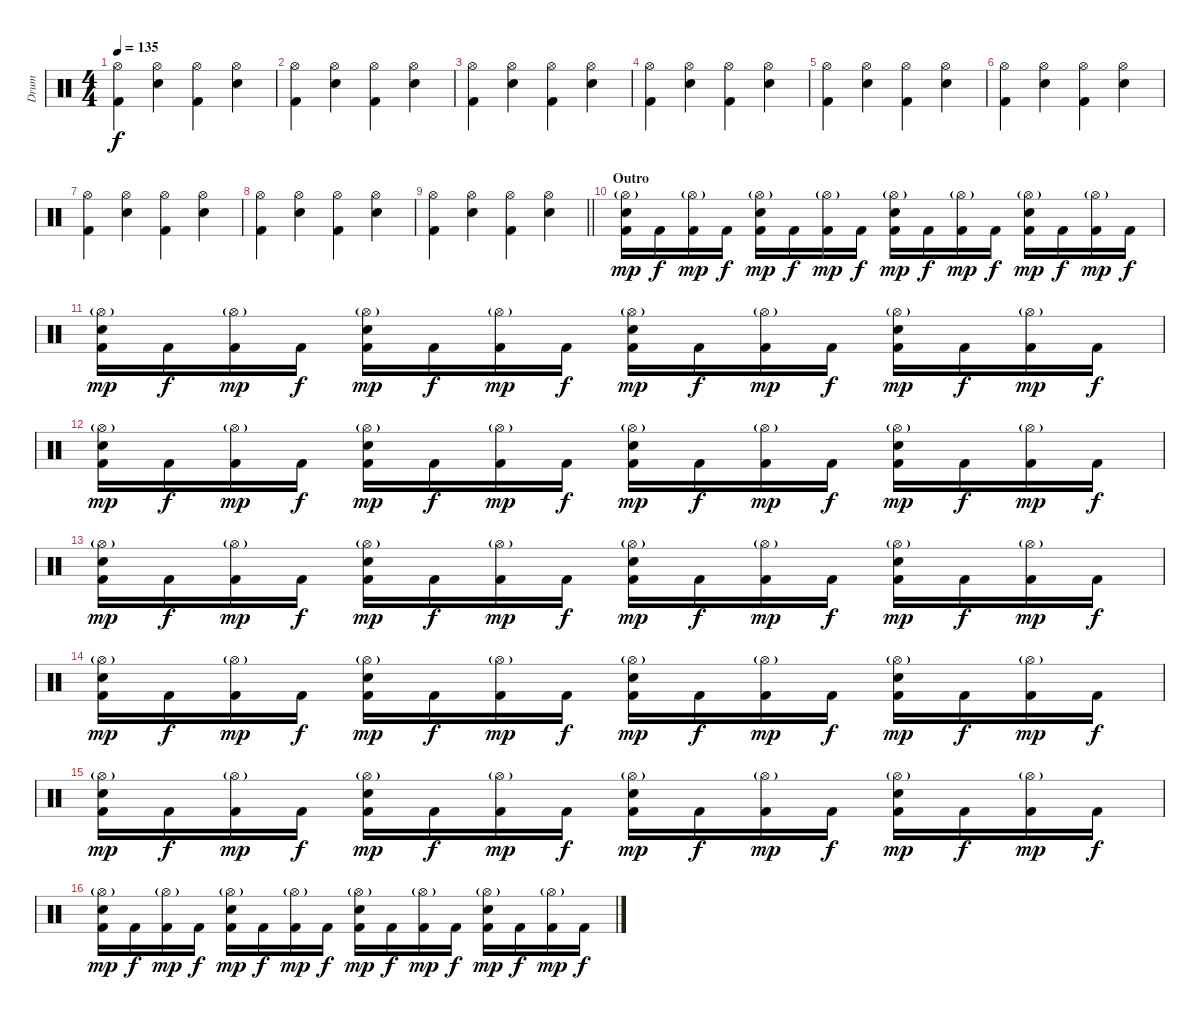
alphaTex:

\track ("Drum" "Drum") {instrument percussion}
\staff {score}
\articulation defaults
\ts (4 4)
\tempo 135
\clef neutral
\ks c
("Hi-Hat (open)" "Kick (hit) 2").4{dy f} ("Hi-Hat (open)" "Electric Snare (hit)").4 ("Hi-Hat (open)" "Kick (hit) 2").4 ("Hi-Hat (open)" "Electric Snare (hit)").4 |
("Hi-Hat (open)" "Kick (hit) 2").4 ("Hi-Hat (open)" "Electric Snare (hit)").4 ("Hi-Hat (open)" "Kick (hit) 2").4 ("Hi-Hat (open)" "Electric Snare (hit)").4 |
("Hi-Hat (open)" "Kick (hit) 2").4 ("Hi-Hat (open)" "Electric Snare (hit)").4 ("Hi-Hat (open)" "Kick (hit) 2").4 ("Hi-Hat (open)" "Electric Snare (hit)").4 |
("Hi-Hat (open)" "Kick (hit) 2").4 ("Hi-Hat (open)" "Electric Snare (hit)").4 ("Hi-Hat (open)" "Kick (hit) 2").4 ("Hi-Hat (open)" "Electric Snare (hit)").4 |
("Hi-Hat (open)" "Kick (hit) 2").4 ("Hi-Hat (open)" "Electric Snare (hit)").4 ("Hi-Hat (open)" "Kick (hit) 2").4 ("Hi-Hat (open)" "Electric Snare (hit)").4 |
("Hi-Hat (open)" "Kick (hit) 2").4 ("Hi-Hat (open)" "Electric Snare (hit)").4 ("Hi-Hat (open)" "Kick (hit) 2").4 ("Hi-Hat (open)" "Electric Snare (hit)").4 |
("Hi-Hat (open)" "Kick (hit) 2").4 ("Hi-Hat (open)" "Electric Snare (hit)").4 ("Hi-Hat (open)" "Kick (hit) 2").4 ("Hi-Hat (open)" "Electric Snare (hit)").4 |
("Hi-Hat (open)" "Kick (hit) 2").4 ("Hi-Hat (open)" "Electric Snare (hit)").4 ("Hi-Hat (open)" "Kick (hit) 2").4 ("Hi-Hat (open)" "Electric Snare (hit)").4 |
\barLineRight lightlight
("Hi-Hat (open)" "Kick (hit) 2").4 ("Hi-Hat (open)" "Electric Snare (hit)").4 ("Hi-Hat (open)" "Kick (hit) 2").4 ("Hi-Hat (open)" "Electric Snare (hit)").4 |
\section ("" "Outro")
("Hi-Hat (open)"{g} "Electric Snare (hit)" "Kick (hit) 2").16{dy mp} "Kick (hit) 2".16{dy f} ("Hi-Hat (open)"{g} "Kick (hit) 2").16{dy mp} "Kick (hit) 2".16{dy f} ("Hi-Hat (open)"{g} "Electric Snare (hit)" "Kick (hit) 2").16{dy mp} "Kick (hit) 2".16{dy f} ("Hi-Hat (open)"{g} "Kick (hit) 2").16{dy mp} "Kick (hit) 2".16{dy f} ("Hi-Hat (open)"{g} "Electric Snare (hit)" "Kick (hit) 2").16{dy mp} "Kick (hit) 2".16{dy f} ("Hi-Hat (open)"{g} "Kick (hit) 2").16{dy mp} "Kick (hit) 2".16{dy f} ("Hi-Hat (open)"{g} "Electric Snare (hit)" "Kick (hit) 2").16{dy mp} "Kick (hit) 2".16{dy f} ("Hi-Hat (open)"{g} "Kick (hit) 2").16{dy mp} "Kick (hit) 2".16{dy f} |
("Hi-Hat (open)"{g} "Electric Snare (hit)" "Kick (hit) 2").16{dy mp} "Kick (hit) 2".16{dy f} ("Hi-Hat (open)"{g} "Kick (hit) 2").16{dy mp} "Kick (hit) 2".16{dy f} ("Hi-Hat (open)"{g} "Electric Snare (hit)" "Kick (hit) 2").16{dy mp} "Kick (hit) 2".16{dy f} ("Hi-Hat (open)"{g} "Kick (hit) 2").16{dy mp} "Kick (hit) 2".16{dy f} ("Hi-Hat (open)"{g} "Electric Snare (hit)" "Kick (hit) 2").16{dy mp} "Kick (hit) 2".16{dy f} ("Hi-Hat (open)"{g} "Kick (hit) 2").16{dy mp} "Kick (hit) 2".16{dy f} ("Hi-Hat (open)"{g} "Electric Snare (hit)" "Kick (hit) 2").16{dy mp} "Kick (hit) 2".16{dy f} ("Hi-Hat (open)"{g} "Kick (hit) 2").16{dy mp} "Kick (hit) 2".16{dy f} |
("Hi-Hat (open)"{g} "Electric Snare (hit)" "Kick (hit) 2").16{dy mp} "Kick (hit) 2".16{dy f} ("Hi-Hat (open)"{g} "Kick (hit) 2").16{dy mp} "Kick (hit) 2".16{dy f} ("Hi-Hat (open)"{g} "Electric Snare (hit)" "Kick (hit) 2").16{dy mp} "Kick (hit) 2".16{dy f} ("Hi-Hat (open)"{g} "Kick (hit) 2").16{dy mp} "Kick (hit) 2".16{dy f} ("Hi-Hat (open)"{g} "Electric Snare (hit)" "Kick (hit) 2").16{dy mp} "Kick (hit) 2".16{dy f} ("Hi-Hat (open)"{g} "Kick (hit) 2").16{dy mp} "Kick (hit) 2".16{dy f} ("Hi-Hat (open)"{g} "Electric Snare (hit)" "Kick (hit) 2").16{dy mp} "Kick (hit) 2".16{dy f} ("Hi-Hat (open)"{g} "Kick (hit) 2").16{dy mp} "Kick (hit) 2".16{dy f} |
("Hi-Hat (open)"{g} "Electric Snare (hit)" "Kick (hit) 2").16{dy mp} "Kick (hit) 2".16{dy f} ("Hi-Hat (open)"{g} "Kick (hit) 2").16{dy mp} "Kick (hit) 2".16{dy f} ("Hi-Hat (open)"{g} "Electric Snare (hit)" "Kick (hit) 2").16{dy mp} "Kick (hit) 2".16{dy f} ("Hi-Hat (open)"{g} "Kick (hit) 2").16{dy mp} "Kick (hit) 2".16{dy f} ("Hi-Hat (open)"{g} "Electric Snare (hit)" "Kick (hit) 2").16{dy mp} "Kick (hit) 2".16{dy f} ("Hi-Hat (open)"{g} "Kick (hit) 2").16{dy mp} "Kick (hit) 2".16{dy f} ("Hi-Hat (open)"{g} "Electric Snare (hit)" "Kick (hit) 2").16{dy mp} "Kick (hit) 2".16{dy f} ("Hi-Hat (open)"{g} "Kick (hit) 2").16{dy mp} "Kick (hit) 2".16{dy f} |
("Hi-Hat (open)"{g} "Electric Snare (hit)" "Kick (hit) 2").16{dy mp} "Kick (hit) 2".16{dy f} ("Hi-Hat (open)"{g} "Kick (hit) 2").16{dy mp} "Kick (hit) 2".16{dy f} ("Hi-Hat (open)"{g} "Electric Snare (hit)" "Kick (hit) 2").16{dy mp} "Kick (hit) 2".16{dy f} ("Hi-Hat (open)"{g} "Kick (hit) 2").16{dy mp} "Kick (hit) 2".16{dy f} ("Hi-Hat (open)"{g} "Electric Snare (hit)" "Kick (hit) 2").16{dy mp} "Kick (hit) 2".16{dy f} ("Hi-Hat (open)"{g} "Kick (hit) 2").16{dy mp} "Kick (hit) 2".16{dy f} ("Hi-Hat (open)"{g} "Electric Snare (hit)" "Kick (hit) 2").16{dy mp} "Kick (hit) 2".16{dy f} ("Hi-Hat (open)"{g} "Kick (hit) 2").16{dy mp} "Kick (hit) 2".16{dy f} |
("Hi-Hat (open)"{g} "Electric Snare (hit)" "Kick (hit) 2").16{dy mp} "Kick (hit) 2".16{dy f} ("Hi-Hat (open)"{g} "Kick (hit) 2").16{dy mp} "Kick (hit) 2".16{dy f} ("Hi-Hat (open)"{g} "Electric Snare (hit)" "Kick (hit) 2").16{dy mp} "Kick (hit) 2".16{dy f} ("Hi-Hat (open)"{g} "Kick (hit) 2").16{dy mp} "Kick (hit) 2".16{dy f} ("Hi-Hat (open)"{g} "Electric Snare (hit)" "Kick (hit) 2").16{dy mp} "Kick (hit) 2".16{dy f} ("Hi-Hat (open)"{g} "Kick (hit) 2").16{dy mp} "Kick (hit) 2".16{dy f} ("Hi-Hat (open)"{g} "Electric Snare (hit)" "Kick (hit) 2").16{dy mp} "Kick (hit) 2".16{dy f} ("Hi-Hat (open)"{g} "Kick (hit) 2").16{dy mp} "Kick (hit) 2".16{dy f} |
("Hi-Hat (open)"{g} "Electric Snare (hit)" "Kick (hit) 2").16{dy mp} "Kick (hit) 2".16{dy f} ("Hi-Hat (open)"{g} "Kick (hit) 2").16{dy mp} "Kick (hit) 2".16{dy f} ("Hi-Hat (open)"{g} "Electric Snare (hit)" "Kick (hit) 2").16{dy mp} "Kick (hit) 2".16{dy f} ("Hi-Hat (open)"{g} "Kick (hit) 2").16{dy mp} "Kick (hit) 2".16{dy f} ("Hi-Hat (open)"{g} "Electric Snare (hit)" "Kick (hit) 2").16{dy mp} "Kick (hit) 2".16{dy f} ("Hi-Hat (open)"{g} "Kick (hit) 2").16{dy mp} "Kick (hit) 2".16{dy f} ("Hi-Hat (open)"{g} "Electric Snare (hit)" "Kick (hit) 2").16{dy mp} "Kick (hit) 2".16{dy f} ("Hi-Hat (open)"{g} "Kick (hit) 2").16{dy mp} "Kick (hit) 2".16{dy f}
